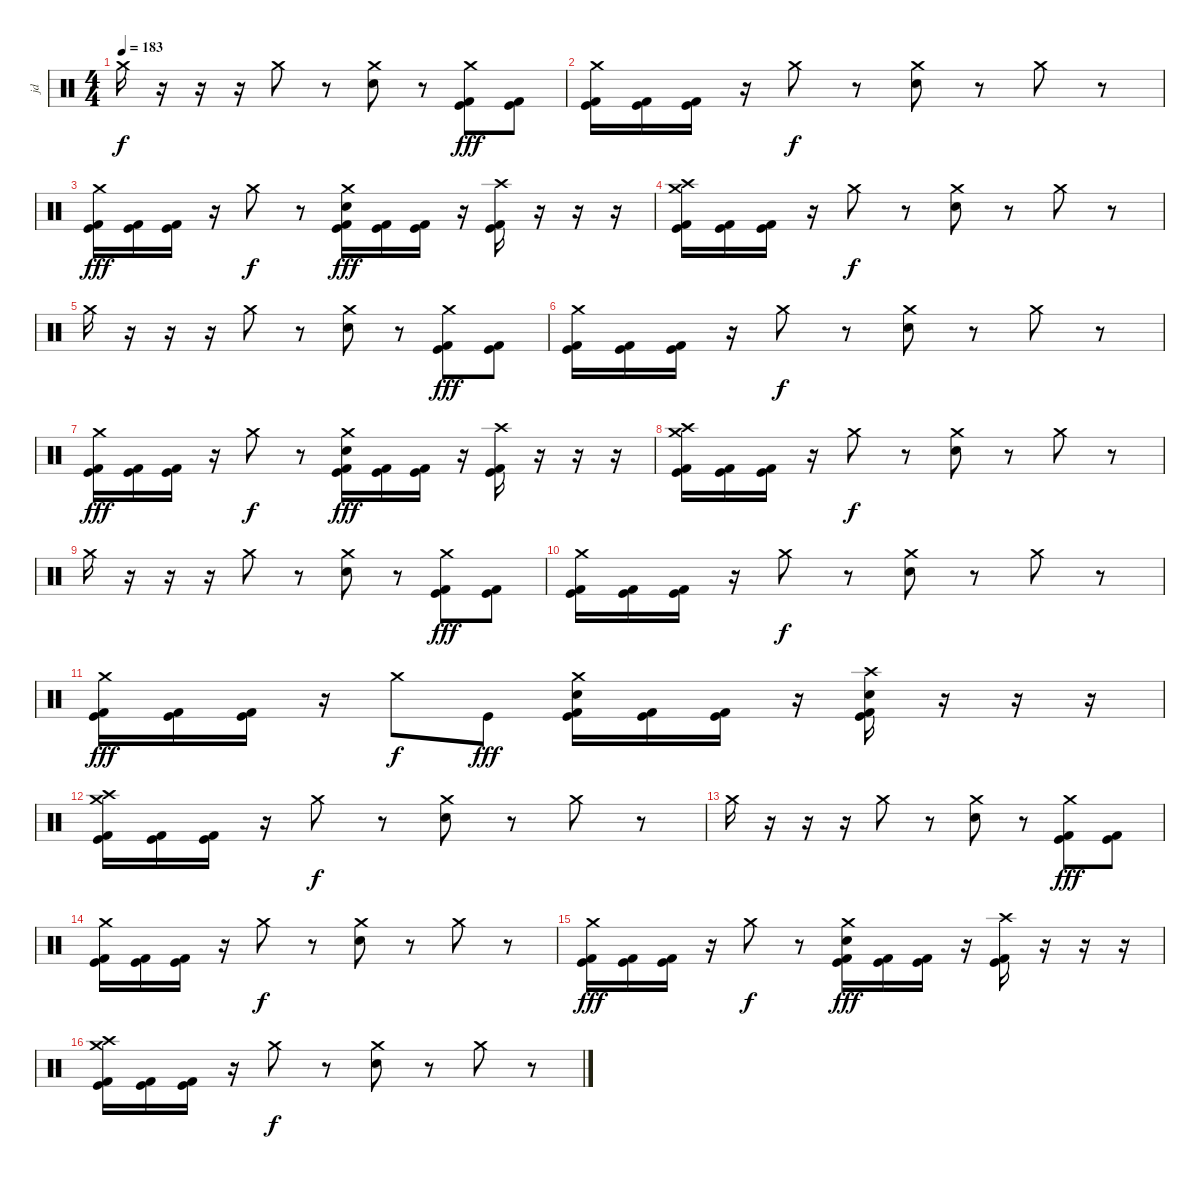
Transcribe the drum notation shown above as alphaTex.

\track ("jd" "jd") {instrument percussion}
\staff {score}
\articulation defaults
\ts (4 4)
\tempo 183
\clef neutral
\ks c "Crash medium (hit)".16{dy f}
r.16 r.16 r.16 "Crash medium (hit)".8 r.8 ("Electric Snare (hit)" "Crash medium (hit)").8 r.8 ("Kick (hit)" "Kick (hit) 2" "Crash medium (hit)").8{dy fff} ("Kick (hit)" "Kick (hit) 2").8 |
("Kick (hit)" "Kick (hit) 2" "Crash medium (hit)").16 ("Kick (hit)" "Kick (hit) 2").16 ("Kick (hit)" "Kick (hit) 2").16 r.16 "Crash medium (hit)".8{dy f} r.8 ("Electric Snare (hit)" "Crash medium (hit)").8 r.8 "Crash medium (hit)".8 r.8 |
("Kick (hit)" "Kick (hit) 2" "Crash medium (hit)").16{dy fff} ("Kick (hit)" "Kick (hit) 2").16 ("Kick (hit)" "Kick (hit) 2").16 r.16 "Crash medium (hit)".8{dy f} r.8 ("Kick (hit)" "Kick (hit) 2" "Electric Snare (hit)" "Crash medium (hit)").16{dy fff} ("Kick (hit)" "Kick (hit) 2").16 ("Kick (hit)" "Kick (hit) 2").16 r.16 ("Kick (hit)" "Kick (hit) 2" "Crash high (hit)").16 r.16 r.16 r.16 |
("Kick (hit)" "Kick (hit) 2" "Crash high (hit)" "Crash medium (hit)").16 ("Kick (hit)" "Kick (hit) 2").16 ("Kick (hit)" "Kick (hit) 2").16 r.16 "Crash medium (hit)".8{dy f} r.8 ("Electric Snare (hit)" "Crash medium (hit)").8 r.8 "Crash medium (hit)".8 r.8 |
"Crash medium (hit)".16 r.16 r.16 r.16 "Crash medium (hit)".8 r.8 ("Electric Snare (hit)" "Crash medium (hit)").8 r.8 ("Kick (hit)" "Kick (hit) 2" "Crash medium (hit)").8{dy fff} ("Kick (hit)" "Kick (hit) 2").8 |
("Kick (hit)" "Kick (hit) 2" "Crash medium (hit)").16 ("Kick (hit)" "Kick (hit) 2").16 ("Kick (hit)" "Kick (hit) 2").16 r.16 "Crash medium (hit)".8{dy f} r.8 ("Electric Snare (hit)" "Crash medium (hit)").8 r.8 "Crash medium (hit)".8 r.8 |
("Kick (hit)" "Kick (hit) 2" "Crash medium (hit)").16{dy fff} ("Kick (hit)" "Kick (hit) 2").16 ("Kick (hit)" "Kick (hit) 2").16 r.16 "Crash medium (hit)".8{dy f} r.8 ("Kick (hit)" "Kick (hit) 2" "Electric Snare (hit)" "Crash medium (hit)").16{dy fff} ("Kick (hit)" "Kick (hit) 2").16 ("Kick (hit)" "Kick (hit) 2").16 r.16 ("Kick (hit)" "Kick (hit) 2" "Crash high (hit)").16 r.16 r.16 r.16 |
("Kick (hit)" "Kick (hit) 2" "Crash high (hit)" "Crash medium (hit)").16 ("Kick (hit)" "Kick (hit) 2").16 ("Kick (hit)" "Kick (hit) 2").16 r.16 "Crash medium (hit)".8{dy f} r.8 ("Electric Snare (hit)" "Crash medium (hit)").8 r.8 "Crash medium (hit)".8 r.8 |
"Crash medium (hit)".16 r.16 r.16 r.16 "Crash medium (hit)".8 r.8 ("Electric Snare (hit)" "Crash medium (hit)").8 r.8 ("Kick (hit)" "Kick (hit) 2" "Crash medium (hit)").8{dy fff} ("Kick (hit)" "Kick (hit) 2").8 |
("Kick (hit)" "Kick (hit) 2" "Crash medium (hit)").16 ("Kick (hit)" "Kick (hit) 2").16 ("Kick (hit)" "Kick (hit) 2").16 r.16 "Crash medium (hit)".8{dy f} r.8 ("Electric Snare (hit)" "Crash medium (hit)").8 r.8 "Crash medium (hit)".8 r.8 |
("Kick (hit)" "Kick (hit) 2" "Crash medium (hit)").16{dy fff} ("Kick (hit)" "Kick (hit) 2").16 ("Kick (hit)" "Kick (hit) 2").16 r.16 "Crash medium (hit)".8{dy f} "Kick (hit)".8{dy fff} ("Kick (hit)" "Kick (hit) 2" "Electric Snare (hit)" "Crash medium (hit)").16 ("Kick (hit)" "Kick (hit) 2").16 ("Kick (hit)" "Kick (hit) 2").16 r.16 ("Kick (hit)" "Kick (hit) 2" "Electric Snare (hit)" "Crash high (hit)").16 r.16 r.16 r.16 |
("Kick (hit)" "Kick (hit) 2" "Crash high (hit)" "Crash medium (hit)").16 ("Kick (hit)" "Kick (hit) 2").16 ("Kick (hit)" "Kick (hit) 2").16 r.16 "Crash medium (hit)".8{dy f} r.8 ("Electric Snare (hit)" "Crash medium (hit)").8 r.8 "Crash medium (hit)".8 r.8 |
"Crash medium (hit)".16 r.16 r.16 r.16 "Crash medium (hit)".8 r.8 ("Electric Snare (hit)" "Crash medium (hit)").8 r.8 ("Kick (hit)" "Kick (hit) 2" "Crash medium (hit)").8{dy fff} ("Kick (hit)" "Kick (hit) 2").8 |
("Kick (hit)" "Kick (hit) 2" "Crash medium (hit)").16 ("Kick (hit)" "Kick (hit) 2").16 ("Kick (hit)" "Kick (hit) 2").16 r.16 "Crash medium (hit)".8{dy f} r.8 ("Electric Snare (hit)" "Crash medium (hit)").8 r.8 "Crash medium (hit)".8 r.8 |
("Kick (hit)" "Kick (hit) 2" "Crash medium (hit)").16{dy fff} ("Kick (hit)" "Kick (hit) 2").16 ("Kick (hit)" "Kick (hit) 2").16 r.16 "Crash medium (hit)".8{dy f} r.8 ("Kick (hit)" "Kick (hit) 2" "Electric Snare (hit)" "Crash medium (hit)").16{dy fff} ("Kick (hit)" "Kick (hit) 2").16 ("Kick (hit)" "Kick (hit) 2").16 r.16 ("Kick (hit)" "Kick (hit) 2" "Crash high (hit)").16 r.16 r.16 r.16 |
("Kick (hit)" "Kick (hit) 2" "Crash high (hit)" "Crash medium (hit)").16 ("Kick (hit)" "Kick (hit) 2").16 ("Kick (hit)" "Kick (hit) 2").16 r.16 "Crash medium (hit)".8{dy f} r.8 ("Electric Snare (hit)" "Crash medium (hit)").8 r.8 "Crash medium (hit)".8 r.8
